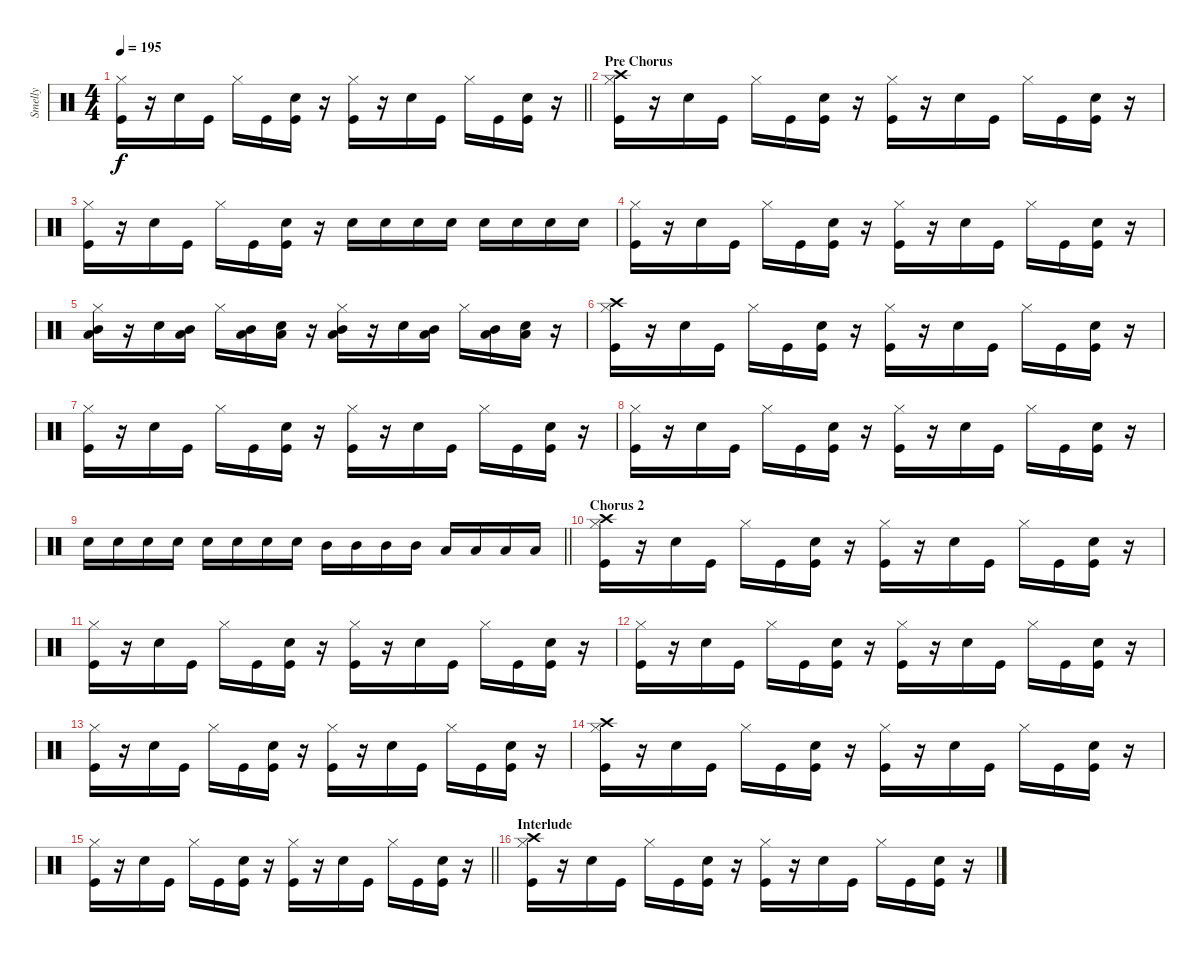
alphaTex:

\track ("Smelly" "Smelly") {instrument percussion}
\staff {score}
\articulation defaults
\ts (4 4)
\tempo 195
\clef neutral
\barLineRight lightlight
\ks c
("Hi-Hat (closed)" "Kick (hit)").16{dy f} r.16 "Snare (hit) 2".16 "Kick (hit)".16 "Hi-Hat (closed)".16 "Kick (hit)".16 ("Snare (hit) 2" "Kick (hit)").16 r.16 ("Hi-Hat (closed)" "Kick (hit)").16 r.16 "Snare (hit) 2".16 "Kick (hit)".16 "Hi-Hat (closed)".16 "Kick (hit)".16 ("Snare (hit) 2" "Kick (hit)").16 r.16 |
\section ("" "Pre Chorus")
("Crash high (hit)" "Hi-Hat (closed)" "Kick (hit)").16 r.16 "Snare (hit) 2".16 "Kick (hit)".16 "Hi-Hat (closed)".16 "Kick (hit)".16 ("Snare (hit) 2" "Kick (hit)").16 r.16 ("Hi-Hat (closed)" "Kick (hit)").16 r.16 "Snare (hit) 2".16 "Kick (hit)".16 "Hi-Hat (closed)".16 "Kick (hit)".16 ("Snare (hit) 2" "Kick (hit)").16 r.16 |
("Hi-Hat (closed)" "Kick (hit)").16 r.16 "Snare (hit) 2".16 "Kick (hit)".16 "Hi-Hat (closed)".16 "Kick (hit)".16 ("Snare (hit) 2" "Kick (hit)").16 r.16 "Snare (hit) 2".16 "Snare (hit) 2".16 "Snare (hit) 2".16 "Snare (hit) 2".16 "Snare (hit) 2".16 "Snare (hit) 2".16 "Snare (hit) 2".16 "Snare (hit) 2".16 |
("Hi-Hat (closed)" "Kick (hit)").16 r.16 "Snare (hit) 2".16 "Kick (hit)".16 "Hi-Hat (closed)".16 "Kick (hit)".16 ("Snare (hit) 2" "Kick (hit)").16 r.16 ("Hi-Hat (closed)" "Kick (hit)").16 r.16 "Snare (hit) 2".16 "Kick (hit)".16 "Hi-Hat (closed)".16 "Kick (hit)".16 ("Snare (hit) 2" "Kick (hit)").16 r.16 |
("Hi-Hat (closed)" "Mid Tom (hit)" "Low Tom (hit)").16 r.16 "Snare (hit) 2".16 ("Mid Tom (hit)" "Low Tom (hit)").16 "Hi-Hat (closed)".16 ("Mid Tom (hit)" "Low Tom (hit)").16 ("Snare (hit) 2" "Low Tom (hit)").16 r.16 ("Hi-Hat (closed)" "Mid Tom (hit)" "Low Tom (hit)").16 r.16 "Snare (hit) 2".16 ("Mid Tom (hit)" "Low Tom (hit)").16 "Hi-Hat (closed)".16 ("Mid Tom (hit)" "Low Tom (hit)").16 ("Snare (hit) 2" "Low Tom (hit)").16 r.16 |
("Crash high (hit)" "Hi-Hat (closed)" "Kick (hit)").16 r.16 "Snare (hit) 2".16 "Kick (hit)".16 "Hi-Hat (closed)".16 "Kick (hit)".16 ("Snare (hit) 2" "Kick (hit)").16 r.16 ("Hi-Hat (closed)" "Kick (hit)").16 r.16 "Snare (hit) 2".16 "Kick (hit)".16 "Hi-Hat (closed)".16 "Kick (hit)".16 ("Snare (hit) 2" "Kick (hit)").16 r.16 |
("Hi-Hat (closed)" "Kick (hit)").16 r.16 "Snare (hit) 2".16 "Kick (hit)".16 "Hi-Hat (closed)".16 "Kick (hit)".16 ("Snare (hit) 2" "Kick (hit)").16 r.16 ("Hi-Hat (closed)" "Kick (hit)").16 r.16 "Snare (hit) 2".16 "Kick (hit)".16 "Hi-Hat (closed)".16 "Kick (hit)".16 ("Snare (hit) 2" "Kick (hit)").16 r.16 |
("Hi-Hat (closed)" "Kick (hit)").16 r.16 "Snare (hit) 2".16 "Kick (hit)".16 "Hi-Hat (closed)".16 "Kick (hit)".16 ("Snare (hit) 2" "Kick (hit)").16 r.16 ("Hi-Hat (closed)" "Kick (hit)").16 r.16 "Snare (hit) 2".16 "Kick (hit)".16 "Hi-Hat (closed)".16 "Kick (hit)".16 ("Snare (hit) 2" "Kick (hit)").16 r.16 |
\barLineRight lightlight "Snare (hit) 2".16 "Snare (hit) 2".16 "Snare (hit) 2".16 "Snare (hit) 2".16 "Snare (hit) 2".16 "Snare (hit) 2".16 "Snare (hit) 2".16 "Snare (hit) 2".16 "Mid Tom (hit)".16 "Mid Tom (hit)".16 "Mid Tom (hit)".16 "Mid Tom (hit)".16 "Low Tom (hit)".16 "Low Tom (hit)".16 "Low Tom (hit)".16 "Low Tom (hit)".16
|
\section ("" "Chorus 2")
("Crash high (hit)" "Hi-Hat (closed)" "Kick (hit)").16 r.16 "Snare (hit) 2".16 "Kick (hit)".16 "Hi-Hat (closed)".16 "Kick (hit)".16 ("Snare (hit) 2" "Kick (hit)").16 r.16 ("Hi-Hat (closed)" "Kick (hit)").16 r.16 "Snare (hit) 2".16 "Kick (hit)".16 "Hi-Hat (closed)".16 "Kick (hit)".16 ("Snare (hit) 2" "Kick (hit)").16 r.16 |
("Hi-Hat (closed)" "Kick (hit)").16 r.16 "Snare (hit) 2".16 "Kick (hit)".16 "Hi-Hat (closed)".16 "Kick (hit)".16 ("Snare (hit) 2" "Kick (hit)").16 r.16 ("Hi-Hat (closed)" "Kick (hit)").16 r.16 "Snare (hit) 2".16 "Kick (hit)".16 "Hi-Hat (closed)".16 "Kick (hit)".16 ("Snare (hit) 2" "Kick (hit)").16 r.16 |
("Hi-Hat (closed)" "Kick (hit)").16 r.16 "Snare (hit) 2".16 "Kick (hit)".16 "Hi-Hat (closed)".16 "Kick (hit)".16 ("Snare (hit) 2" "Kick (hit)").16 r.16 ("Hi-Hat (closed)" "Kick (hit)").16 r.16 "Snare (hit) 2".16 "Kick (hit)".16 "Hi-Hat (closed)".16 "Kick (hit)".16 ("Snare (hit) 2" "Kick (hit)").16 r.16 |
("Hi-Hat (closed)" "Kick (hit)").16 r.16 "Snare (hit) 2".16 "Kick (hit)".16 "Hi-Hat (closed)".16 "Kick (hit)".16 ("Snare (hit) 2" "Kick (hit)").16 r.16 ("Hi-Hat (closed)" "Kick (hit)").16 r.16 "Snare (hit) 2".16 "Kick (hit)".16 "Hi-Hat (closed)".16 "Kick (hit)".16 ("Snare (hit) 2" "Kick (hit)").16 r.16 |
("Crash high (hit)" "Hi-Hat (closed)" "Kick (hit)").16 r.16 "Snare (hit) 2".16 "Kick (hit)".16 "Hi-Hat (closed)".16 "Kick (hit)".16 ("Snare (hit) 2" "Kick (hit)").16 r.16 ("Hi-Hat (closed)" "Kick (hit)").16 r.16 "Snare (hit) 2".16 "Kick (hit)".16 "Hi-Hat (closed)".16 "Kick (hit)".16 ("Snare (hit) 2" "Kick (hit)").16 r.16 |
\barLineRight lightlight
("Hi-Hat (closed)" "Kick (hit)").16 r.16 "Snare (hit) 2".16 "Kick (hit)".16 "Hi-Hat (closed)".16 "Kick (hit)".16 ("Snare (hit) 2" "Kick (hit)").16 r.16 ("Hi-Hat (closed)" "Kick (hit)").16 r.16 "Snare (hit) 2".16 "Kick (hit)".16 "Hi-Hat (closed)".16 "Kick (hit)".16 ("Snare (hit) 2" "Kick (hit)").16 r.16 |
\section ("" "Interlude")
("Crash high (hit)" "Hi-Hat (closed)" "Kick (hit)").16 r.16 "Snare (hit) 2".16 "Kick (hit)".16 "Hi-Hat (closed)".16 "Kick (hit)".16 ("Snare (hit) 2" "Kick (hit)").16 r.16 ("Hi-Hat (closed)" "Kick (hit)").16 r.16 "Snare (hit) 2".16 "Kick (hit)".16 "Hi-Hat (closed)".16 "Kick (hit)".16 ("Snare (hit) 2" "Kick (hit)").16 r.16
